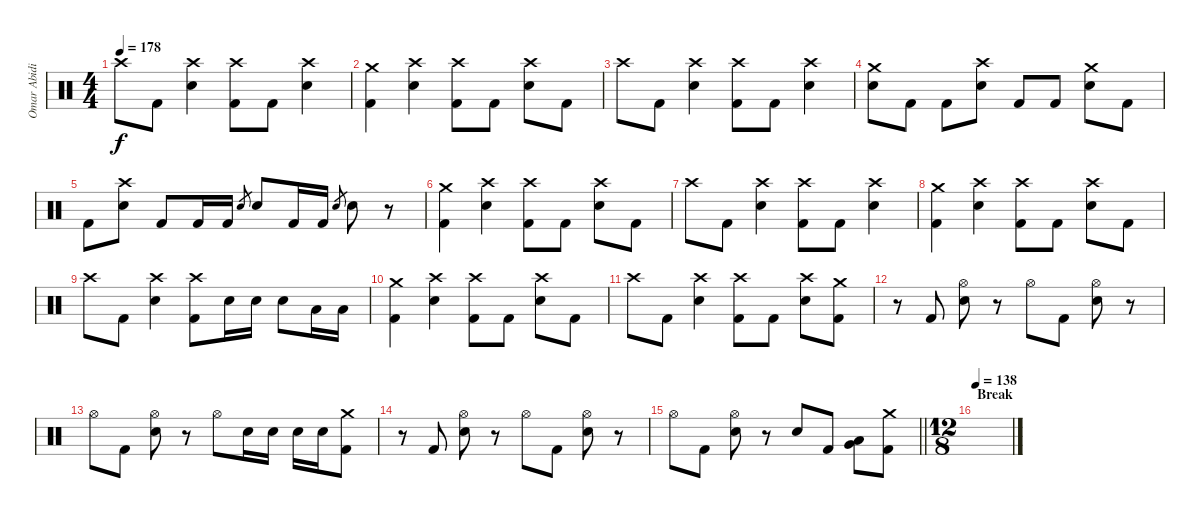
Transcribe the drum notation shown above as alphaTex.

\track ("Omar Abidi" "Omar Abidi") {instrument percussion}
\staff {score}
\articulation defaults
\ts (4 4)
\tempo 178
\clef neutral
\ks c "Crash high (hit)".8{dy f} "Kick (hit) 2".8
("Crash high (hit)" "Electric Snare (hit)").4 ("Crash high (hit)" "Kick (hit) 2").8 "Kick (hit) 2".8 ("Crash high (hit)" "Electric Snare (hit)").4 |
("Crash medium (hit)" "Kick (hit) 2").4 ("Crash high (hit)" "Electric Snare (hit)").4 ("Crash high (hit)" "Kick (hit) 2").8 "Kick (hit) 2".8 ("Crash high (hit)" "Electric Snare (hit)").8 "Kick (hit) 2".8 |
"Crash high (hit)".8 "Kick (hit) 2".8 ("Crash high (hit)" "Electric Snare (hit)").4 ("Crash high (hit)" "Kick (hit) 2").8 "Kick (hit) 2".8 ("Crash high (hit)" "Electric Snare (hit)").4 |
("Crash medium (hit)" "Electric Snare (hit)").8 "Kick (hit) 2".8 "Kick (hit) 2".8 ("Crash high (hit)" "Electric Snare (hit)").8 "Kick (hit) 2".8 "Kick (hit) 2".8 ("Crash medium (hit)" "Electric Snare (hit)").8 "Kick (hit) 2".8 |
"Kick (hit) 2".8 ("Crash high (hit)" "Electric Snare (hit)").8 "Kick (hit) 2".8 "Kick (hit) 2".16 "Kick (hit) 2".16 "Electric Snare (hit)".8{gr} "Electric Snare (hit)".8 "Kick (hit) 2".16 "Kick (hit) 2".16 "Electric Snare (hit)".8{gr} "Electric Snare (hit)".8 r.8 |
("Crash medium (hit)" "Kick (hit) 2").4 ("Crash high (hit)" "Electric Snare (hit)").4 ("Crash high (hit)" "Kick (hit) 2").8 "Kick (hit) 2".8 ("Crash high (hit)" "Electric Snare (hit)").8 "Kick (hit) 2".8 |
"Crash high (hit)".8 "Kick (hit) 2".8 ("Crash high (hit)" "Electric Snare (hit)").4 ("Crash high (hit)" "Kick (hit) 2").8 "Kick (hit) 2".8 ("Crash high (hit)" "Electric Snare (hit)").4 |
("Crash medium (hit)" "Kick (hit) 2").4 ("Crash high (hit)" "Electric Snare (hit)").4 ("Crash high (hit)" "Kick (hit) 2").8 "Kick (hit) 2".8 ("Crash high (hit)" "Electric Snare (hit)").8 "Kick (hit) 2".8 |
"Crash high (hit)".8 "Kick (hit) 2".8 ("Crash high (hit)" "Electric Snare (hit)").4 ("Crash high (hit)" "Kick (hit) 2").8 "Electric Snare (hit)".16 "Electric Snare (hit)".16 "Electric Snare (hit)".8 "Low Tom (hit)".16 "Low Tom (hit)".16 |
("Crash medium (hit)" "Kick (hit) 2").4 ("Crash high (hit)" "Electric Snare (hit)").4 ("Crash high (hit)" "Kick (hit) 2").8 "Kick (hit) 2".8 ("Crash high (hit)" "Electric Snare (hit)").8 "Kick (hit) 2".8 |
"Crash high (hit)".8 "Kick (hit) 2".8 ("Crash high (hit)" "Electric Snare (hit)").4 ("Crash high (hit)" "Kick (hit) 2").8 "Kick (hit) 2".8 ("Crash high (hit)" "Electric Snare (hit)").8 ("Crash medium (hit)" "Kick (hit) 2").8 |
r.8 "Kick (hit) 2".8 ("Hi-Hat (open)" "Electric Snare (hit)").8 r.8 "Hi-Hat (open)".8 "Kick (hit) 2".8 ("Hi-Hat (open)" "Electric Snare (hit)").8 r.8 |
"Hi-Hat (open)".8 "Kick (hit) 2".8 ("Hi-Hat (open)" "Electric Snare (hit)").8 r.8 "Hi-Hat (open)".8 "Electric Snare (hit)".16 "Electric Snare (hit)".16 "Electric Snare (hit)".16 "Electric Snare (hit)".16 ("Crash medium (hit)" "Kick (hit) 2").8 |
r.8 "Kick (hit) 2".8 ("Hi-Hat (open)" "Electric Snare (hit)").8 r.8 "Hi-Hat (open)".8 "Kick (hit) 2".8 ("Hi-Hat (open)" "Electric Snare (hit)").8 r.8 |
\barLineRight lightlight "Hi-Hat (open)".8 "Kick (hit) 2".8
("Hi-Hat (open)" "Electric Snare (hit)").8 r.8 "Electric Snare (hit)".8 "Kick (hit) 2".8 ("Very Low Tom (hit)" "Low Floor Tom (hit)").8 ("Crash medium (hit)" "Kick (hit) 2").8 |
\ts (12 8)
\section ("" "Break")
\tempo 138
